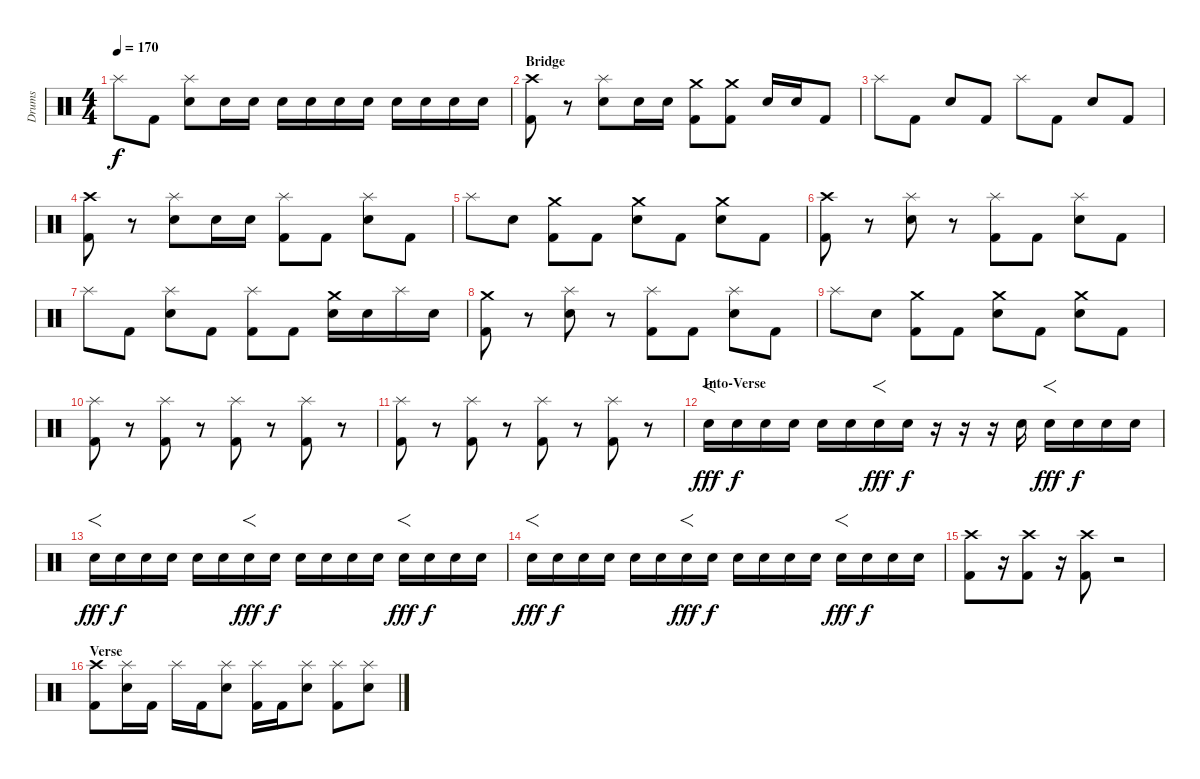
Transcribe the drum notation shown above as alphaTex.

\track ("Drums" "Drums") {instrument percussion}
\staff {score}
\articulation defaults
\ts (4 4)
\tempo 170
\clef neutral
\ks c "Splash (hit)".8{dy f} "Kick (hit) 2".8
("Splash (hit)" "Electric Snare (hit)").8 "Electric Snare (hit)".16 "Electric Snare (hit)".16 "Electric Snare (hit)".16 "Electric Snare (hit)".16 "Electric Snare (hit)".16 "Electric Snare (hit)".16 "Electric Snare (hit)".16 "Electric Snare (hit)".16 "Electric Snare (hit)".16 "Electric Snare (hit)".16 |
\section ("" "Bridge")
("Crash high (hit)" "Kick (hit) 2").8 r.8 ("Splash (hit)" "Electric Snare (hit)").8 "Electric Snare (hit)".16 "Electric Snare (hit)".16 ("Crash medium (hit)" "Kick (hit) 2").8 ("Crash medium (hit)" "Kick (hit) 2").8 "Electric Snare (hit)".16 "Electric Snare (hit)".16 "Kick (hit) 2".8 |
"Splash (hit)".8 "Kick (hit) 2".8 "Electric Snare (hit)".8 "Kick (hit) 2".8 "Splash (hit)".8 "Kick (hit) 2".8 "Electric Snare (hit)".8 "Kick (hit) 2".8 |
("Crash high (hit)" "Kick (hit) 2").8 r.8 ("Splash (hit)" "Electric Snare (hit)").8 "Electric Snare (hit)".16 "Electric Snare (hit)".16 ("Splash (hit)" "Kick (hit) 2").8 "Kick (hit) 2".8 ("Splash (hit)" "Electric Snare (hit)").8 "Kick (hit) 2".8 |
"Splash (hit)".8 "Electric Snare (hit)".8 ("Crash medium (hit)" "Kick (hit) 2").8 "Kick (hit) 2".8 ("Crash medium (hit)" "Electric Snare (hit)").8 "Kick (hit) 2".8 ("Crash medium (hit)" "Electric Snare (hit)").8 "Kick (hit) 2".8 |
("Crash high (hit)" "Kick (hit) 2").8 r.8 ("Splash (hit)" "Electric Snare (hit)").8 r.8 ("Splash (hit)" "Kick (hit) 2").8 "Kick (hit) 2".8 ("Splash (hit)" "Electric Snare (hit)").8 "Kick (hit) 2".8 |
"Splash (hit)".8 "Kick (hit) 2".8 ("Splash (hit)" "Electric Snare (hit)").8 "Kick (hit) 2".8 ("Splash (hit)" "Kick (hit) 2").8 "Kick (hit) 2".8 ("Crash medium (hit)" "Electric Snare (hit)").16 "Electric Snare (hit)".16 "Splash (hit)".16 "Electric Snare (hit)".16 |
("Crash medium (hit)" "Kick (hit) 2").8 r.8 ("Splash (hit)" "Electric Snare (hit)").8 r.8 ("Splash (hit)" "Kick (hit) 2").8 "Kick (hit) 2".8 ("Splash (hit)" "Electric Snare (hit)").8 "Kick (hit) 2".8 |
"Splash (hit)".8 "Electric Snare (hit)".8 ("Crash medium (hit)" "Kick (hit) 2").8 "Kick (hit) 2".8 ("Crash medium (hit)" "Electric Snare (hit)").8 "Kick (hit) 2".8 ("Crash medium (hit)" "Electric Snare (hit)").8 "Kick (hit) 2".8 |
("Splash (hit)" "Kick (hit) 2").8 r.8 ("Splash (hit)" "Kick (hit) 2").8 r.8 ("Splash (hit)" "Kick (hit) 2").8 r.8 ("Splash (hit)" "Kick (hit) 2").8 r.8 |
("Splash (hit)" "Kick (hit) 2").8 r.8 ("Splash (hit)" "Kick (hit) 2").8 r.8 ("Splash (hit)" "Kick (hit) 2").8 r.8 ("Splash (hit)" "Kick (hit) 2").8 r.8 |
\section ("" "Into-Verse")
"Electric Snare (hit)".16{f dy fff} "Electric Snare (hit)".16{dy f} "Electric Snare (hit)".16 "Electric Snare (hit)".16 "Electric Snare (hit)".16 "Electric Snare (hit)".16 "Electric Snare (hit)".16{f dy fff} "Electric Snare (hit)".16{dy f} r.16 r.16 r.16 "Electric Snare (hit)".16 "Electric Snare (hit)".16{f dy fff} "Electric Snare (hit)".16{dy f} "Electric Snare (hit)".16 "Electric Snare (hit)".16 |
"Electric Snare (hit)".16{f dy fff} "Electric Snare (hit)".16{dy f} "Electric Snare (hit)".16 "Electric Snare (hit)".16 "Electric Snare (hit)".16 "Electric Snare (hit)".16 "Electric Snare (hit)".16{f dy fff} "Electric Snare (hit)".16{dy f} "Electric Snare (hit)".16 "Electric Snare (hit)".16 "Electric Snare (hit)".16 "Electric Snare (hit)".16 "Electric Snare (hit)".16{f dy fff} "Electric Snare (hit)".16{dy f} "Electric Snare (hit)".16 "Electric Snare (hit)".16 |
"Electric Snare (hit)".16{f dy fff} "Electric Snare (hit)".16{dy f} "Electric Snare (hit)".16 "Electric Snare (hit)".16 "Electric Snare (hit)".16 "Electric Snare (hit)".16 "Electric Snare (hit)".16{f dy fff} "Electric Snare (hit)".16{dy f} "Electric Snare (hit)".16 "Electric Snare (hit)".16 "Electric Snare (hit)".16 "Electric Snare (hit)".16 "Electric Snare (hit)".16{f dy fff} "Electric Snare (hit)".16{dy f} "Electric Snare (hit)".16 "Electric Snare (hit)".16 |
("Crash high (hit)" "Kick (hit) 2").8 r.16 ("Crash high (hit)" "Kick (hit) 2").8 r.16 ("Crash high (hit)" "Kick (hit) 2").8 r.2 |
\section ("" "Verse")
("Crash high (hit)" "Kick (hit) 2").8 ("Splash (hit)" "Electric Snare (hit)").16 "Kick (hit) 2".16 "Splash (hit)".16 "Kick (hit) 2".16 ("Splash (hit)" "Electric Snare (hit)").8 ("Splash (hit)" "Kick (hit) 2").16 "Kick (hit) 2".16 ("Splash (hit)" "Electric Snare (hit)").8 ("Splash (hit)" "Kick (hit) 2").8 ("Splash (hit)" "Electric Snare (hit)").8
